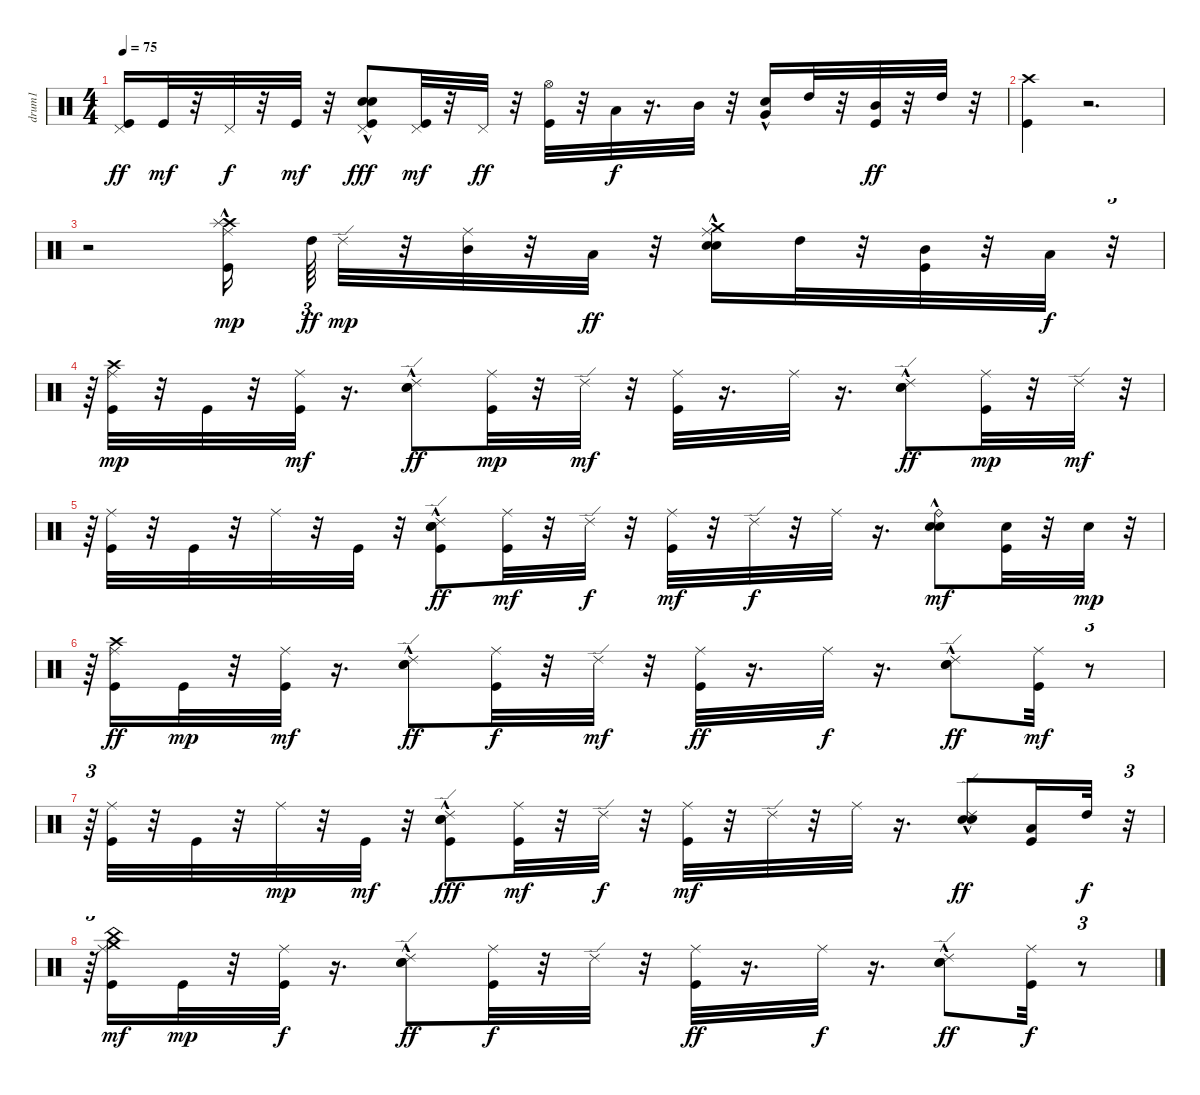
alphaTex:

\track ("drum1" "drum1") {instrument percussion}
\staff {score}
\articulation defaults
\ts (4 4)
\tempo 75
\clef neutral
\ks c
("Kick (hit)" "Pedal Hi-Hat (hit)").16{dy ff} "Kick (hit)".32{dy mf} r.32 "Pedal Hi-Hat (hit)".32{dy f} r.32 "Kick (hit)".32{dy mf} r.32 ("Kick (hit)" "Hand Clap (hit)"{hac} "Electric Snare (hit)" "Pedal Hi-Hat (hit)").8{dy fff} ("Kick (hit)" "Pedal Hi-Hat (hit)").32{dy mf} r.32 "Pedal Hi-Hat (hit)".32{dy ff} r.32 ("Kick (hit)" "Hi-Hat (open)").32 r.32 "Low Floor Tom (hit)".32{dy f} r.16{d} "Mid Tom (hit)".32 r.32 ("Hand Clap (hit)"{hac} "Very Low Tom (hit)").16 "High Tom (hit)".32 r.32 ("Kick (hit)" "Mid Tom (hit)").32{dy ff} r.32 "High Tom (hit)".32 r.32 |
("Kick (hit)" "Crash high (hit)").4 r.2{d} |
r.2 ("Kick (hit)" "Crash high (hit)"{hac} "Ride (middle)" "Splash (hit)"{hac}).16{dy mp} "High Tom (hit)".64{tu (3 2) dy ff} "Ride (edge) 2".32{dy mp} r.32 ("Mid Tom (hit)" "Ride (middle)").32 r.32 "Low Tom (hit)".32{dy ff} r.32 ("Hand Clap (hit)"{hac} "Electric Snare (hit)" "Ride (middle)" "Crash medium (hit)").16 "High Tom (hit)".32 r.32 ("Kick (hit)" "Mid Tom (hit)").32 r.32 "Low Tom (hit)".32{dy f} r.32{tu (3 2)} |
r.64{tu (3 2)} ("Kick (hit)" "Crash high (hit)" "Ride (middle)").32{dy mp} r.32 "Kick (hit)".32 r.32 ("Kick (hit)" "Ride (middle)").32{dy mf} r.16{d} ("Hand Clap (hit)"{hac} "Electric Snare (hit)" "Ride (edge) 2").8{dy ff} ("Kick (hit)" "Ride (middle)").32{dy mp} r.32 "Ride (edge) 2".32{dy mf} r.32 ("Kick (hit)" "Ride (middle)").32 r.16{d} "Ride (middle)".32 r.16{d} ("Hand Clap (hit)"{hac} "Electric Snare (hit)" "Ride (edge) 2").8{dy ff} ("Kick (hit)" "Ride (middle)").32{dy mp} r.32 "Ride (edge) 2".32{dy mf} r.32{tu (3 2)} |
r.64{tu (3 2)} ("Kick (hit)" "Ride (middle)").32 r.32 "Kick (hit)".32 r.32 "Ride (middle)".32 r.32 "Kick (hit)".32 r.32 ("Kick (hit)" "Hand Clap (hit)"{hac} "Electric Snare (hit)" "Ride (edge) 2").8{dy ff} ("Kick (hit)" "Ride (middle)").32{dy mf} r.32 "Ride (edge) 2".32{dy f} r.32 ("Kick (hit)" "Ride (middle)").32{dy mf} r.32 "Ride (edge) 2".32{dy f} r.32 "Ride (middle)".32 r.16{d} ("Hand Clap (hit)"{hac} "Electric Snare (hit)" "Ride (bell)").8{dy mf} ("Kick (hit)" "Electric Snare (hit)").32 r.32 "Electric Snare (hit)".32{dy mp} r.32{tu (3 2)} |
r.64{tu (3 2)} ("Kick (hit)" "Crash high (hit)" "Ride (middle)").16{dy ff} "Kick (hit)".32{dy mp} r.32 ("Kick (hit)" "Ride (middle)").32{dy mf} r.16{d} ("Hand Clap (hit)"{hac} "Electric Snare (hit)" "Ride (edge) 2").8{dy ff} ("Kick (hit)" "Ride (middle)").32{dy f} r.32 "Ride (edge) 2".32{dy mf} r.32 ("Kick (hit)" "Ride (middle)").32{dy ff} r.16{d} "Ride (middle)".32{dy f} r.16{d} ("Hand Clap (hit)"{hac} "Electric Snare (hit)" "Ride (edge) 2").8{dy ff} ("Kick (hit)" "Ride (middle)").32{dy mf} r.8{tu (3 2)} |
r.64{tu (3 2)} ("Kick (hit)" "Ride (middle)").32 r.32 "Kick (hit)".32 r.32 "Ride (middle)".32{dy mp} r.32 "Kick (hit)".32{dy mf} r.32 ("Kick (hit)" "Hand Clap (hit)"{hac} "Electric Snare (hit)" "Ride (edge) 2").8{dy fff} ("Kick (hit)" "Ride (middle)").32{dy mf} r.32 "Ride (edge) 2".32{dy f} r.32 ("Kick (hit)" "Ride (middle)").32{dy mf} r.32 "Ride (edge) 2".32 r.32 "Ride (middle)".32 r.16{d} ("Hand Clap (hit)"{hac} "Electric Snare (hit)" "Ride (edge) 2").8{dy ff} ("Kick (hit)" "Low Tom (hit)").16 "High Tom (hit)".32{dy f} r.32{tu (3 2)} |
r.64{tu (3 2)} ("Kick (hit)" "Ride (middle)" "China (hit)" "Crash medium (hit)").16{dy mf} "Kick (hit)".32{dy mp} r.32 ("Kick (hit)" "Ride (middle)").32{dy f} r.16{d} ("Hand Clap (hit)"{hac} "Electric Snare (hit)" "Ride (edge) 2").8{dy ff} ("Kick (hit)" "Ride (middle)").32{dy f} r.32 "Ride (edge) 2".32 r.32 ("Kick (hit)" "Ride (middle)").32{dy ff} r.16{d} "Ride (middle)".32{dy f} r.16{d} ("Hand Clap (hit)"{hac} "Electric Snare (hit)" "Ride (edge) 2").8{dy ff} ("Kick (hit)" "Ride (middle)").32{dy f} r.8{tu (3 2)}
